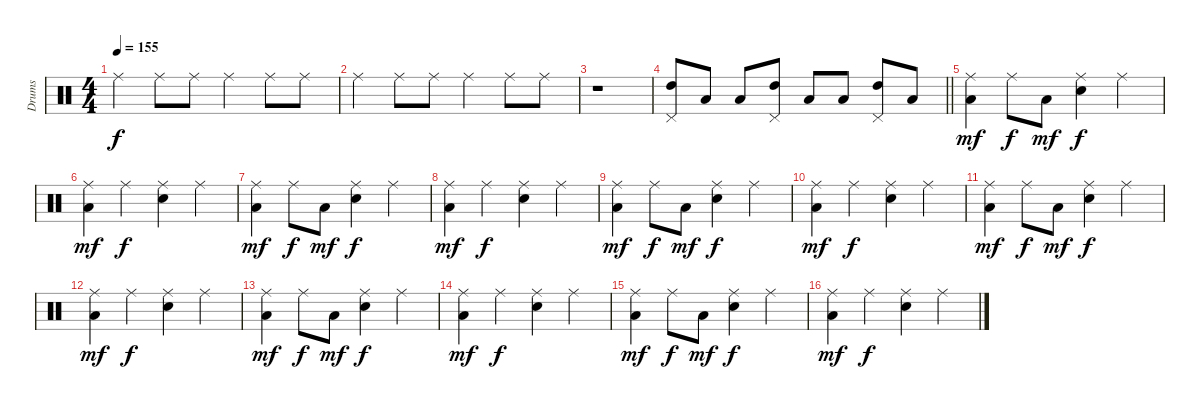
\track ("Drums" "Drums") {instrument percussion}
\staff {score}
\articulation defaults
\ts (4 4)
\tempo 155
\clef neutral
\ks c "Ride (middle)".4{dy f} "Ride (middle)".8 "Ride (middle)".8 "Ride (middle)".4 "Ride (middle)".8 "Ride (middle)".8
|
"Ride (middle)".4 "Ride (middle)".8 "Ride (middle)".8 "Ride (middle)".4 "Ride (middle)".8 "Ride (middle)".8 |
r.1 |
\barLineRight lightlight
("High Tom (hit)" "Pedal Hi-Hat (hit)").8 "Low Tom (hit)".8 "Low Tom (hit)".8 ("High Tom (hit)" "Pedal Hi-Hat (hit)").8 "Low Tom (hit)".8 "Low Tom (hit)".8 ("High Tom (hit)" "Pedal Hi-Hat (hit)").8 "Low Tom (hit)".8 |
("Ride (middle)" "Low Floor Tom (hit)").4{dy mf} "Ride (middle)".8{dy f} "Low Floor Tom (hit)".8{dy mf} ("Ride (middle)" "Electric Snare (hit)").4{dy f} "Ride (middle)".4 |
("Ride (middle)" "Low Floor Tom (hit)").4{dy mf} "Ride (middle)".4{dy f} ("Ride (middle)" "Electric Snare (hit)").4 "Ride (middle)".4 |
("Ride (middle)" "Low Floor Tom (hit)").4{dy mf} "Ride (middle)".8{dy f} "Low Floor Tom (hit)".8{dy mf} ("Ride (middle)" "Electric Snare (hit)").4{dy f} "Ride (middle)".4 |
("Ride (middle)" "Low Floor Tom (hit)").4{dy mf} "Ride (middle)".4{dy f} ("Ride (middle)" "Electric Snare (hit)").4 "Ride (middle)".4 |
("Ride (middle)" "Low Floor Tom (hit)").4{dy mf} "Ride (middle)".8{dy f} "Low Floor Tom (hit)".8{dy mf} ("Ride (middle)" "Electric Snare (hit)").4{dy f} "Ride (middle)".4 |
("Ride (middle)" "Low Floor Tom (hit)").4{dy mf} "Ride (middle)".4{dy f} ("Ride (middle)" "Electric Snare (hit)").4 "Ride (middle)".4 |
("Ride (middle)" "Low Floor Tom (hit)").4{dy mf} "Ride (middle)".8{dy f} "Low Floor Tom (hit)".8{dy mf} ("Ride (middle)" "Electric Snare (hit)").4{dy f} "Ride (middle)".4 |
("Ride (middle)" "Low Floor Tom (hit)").4{dy mf} "Ride (middle)".4{dy f} ("Ride (middle)" "Electric Snare (hit)").4 "Ride (middle)".4 |
("Ride (middle)" "Low Floor Tom (hit)").4{dy mf} "Ride (middle)".8{dy f} "Low Floor Tom (hit)".8{dy mf} ("Ride (middle)" "Electric Snare (hit)").4{dy f} "Ride (middle)".4 |
("Ride (middle)" "Low Floor Tom (hit)").4{dy mf} "Ride (middle)".4{dy f} ("Ride (middle)" "Electric Snare (hit)").4 "Ride (middle)".4 |
("Ride (middle)" "Low Floor Tom (hit)").4{dy mf} "Ride (middle)".8{dy f} "Low Floor Tom (hit)".8{dy mf} ("Ride (middle)" "Electric Snare (hit)").4{dy f} "Ride (middle)".4 |
("Ride (middle)" "Low Floor Tom (hit)").4{dy mf} "Ride (middle)".4{dy f} ("Ride (middle)" "Electric Snare (hit)").4 "Ride (middle)".4
